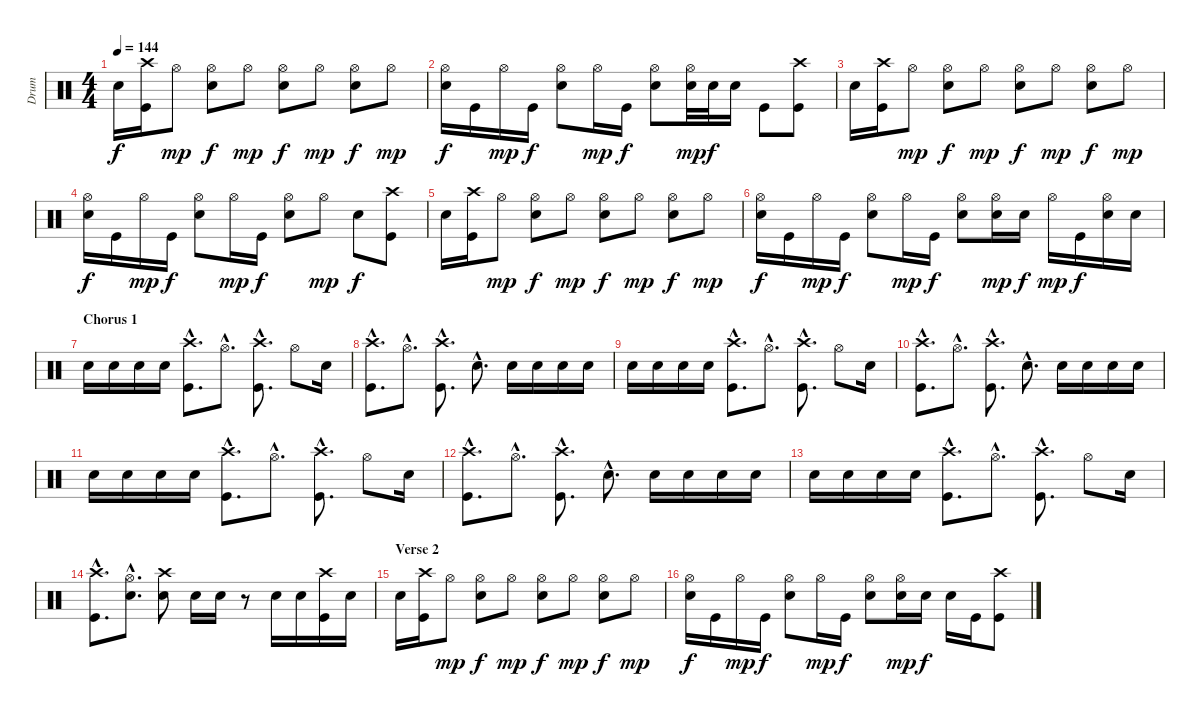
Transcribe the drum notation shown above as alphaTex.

\track ("Drum" "Drum") {instrument percussion}
\staff {score}
\articulation defaults
\ts (4 4)
\tempo 144
\clef neutral
\ks c "Snare (hit) 2".16{dy f}
("Crash high (hit)" "Kick (hit)").16 "Hi-Hat (open)".8{dy mp} ("Hi-Hat (open)" "Snare (hit) 2").8{dy f} "Hi-Hat (open)".8{dy mp} ("Hi-Hat (open)" "Snare (hit) 2").8{dy f} "Hi-Hat (open)".8{dy mp} ("Hi-Hat (open)" "Snare (hit) 2").8{dy f} "Hi-Hat (open)".8{dy mp} |
("Hi-Hat (open)" "Snare (hit) 2").16{dy f} "Kick (hit)".16 "Hi-Hat (open)".16{dy mp} "Kick (hit)".16{dy f} ("Hi-Hat (open)" "Snare (hit) 2").8 "Hi-Hat (open)".16{dy mp} "Kick (hit)".16{dy f} ("Hi-Hat (open)" "Snare (hit) 2").8 ("Hi-Hat (open)" "Snare (hit) 2").32{dy mp} "Snare (hit) 2".32{dy f} "Snare (hit) 2".16 "Kick (hit)".8 ("Crash high (hit)" "Kick (hit)").8 |
"Snare (hit) 2".16 ("Crash high (hit)" "Kick (hit)").16 "Hi-Hat (open)".8{dy mp} ("Hi-Hat (open)" "Snare (hit) 2").8{dy f} "Hi-Hat (open)".8{dy mp} ("Hi-Hat (open)" "Snare (hit) 2").8{dy f} "Hi-Hat (open)".8{dy mp} ("Hi-Hat (open)" "Snare (hit) 2").8{dy f} "Hi-Hat (open)".8{dy mp} |
("Hi-Hat (open)" "Snare (hit) 2").16{dy f} "Kick (hit)".16 "Hi-Hat (open)".16{dy mp} "Kick (hit)".16{dy f} ("Hi-Hat (open)" "Snare (hit) 2").8 "Hi-Hat (open)".16{dy mp} "Kick (hit)".16{dy f} ("Hi-Hat (open)" "Snare (hit) 2").8 "Hi-Hat (open)".8{dy mp} "Snare (hit) 2".8{dy f} ("Crash high (hit)" "Kick (hit)").8 |
"Snare (hit) 2".16 ("Crash high (hit)" "Kick (hit)").16 "Hi-Hat (open)".8{dy mp} ("Hi-Hat (open)" "Snare (hit) 2").8{dy f} "Hi-Hat (open)".8{dy mp} ("Hi-Hat (open)" "Snare (hit) 2").8{dy f} "Hi-Hat (open)".8{dy mp} ("Hi-Hat (open)" "Snare (hit) 2").8{dy f} "Hi-Hat (open)".8{dy mp} |
("Hi-Hat (open)" "Snare (hit) 2").16{dy f} "Kick (hit)".16 "Hi-Hat (open)".16{dy mp} "Kick (hit)".16{dy f} ("Hi-Hat (open)" "Snare (hit) 2").8 "Hi-Hat (open)".16{dy mp} "Kick (hit)".16{dy f} ("Hi-Hat (open)" "Snare (hit) 2").8 ("Hi-Hat (open)" "Snare (hit) 2").16{dy mp} "Snare (hit) 2".16{dy f} "Hi-Hat (open)".16{dy mp} "Kick (hit)".16{dy f} ("Hi-Hat (open)" "Snare (hit) 2").16 "Snare (hit) 2".16 |
\section ("" "Chorus 1")
"Snare (hit) 2".16 "Snare (hit) 2".16 "Snare (hit) 2".16 "Snare (hit) 2".16 ("Crash high (hit)"{hac} "Kick (hit)"{hac}).8{d} "Hi-Hat (open)"{hac}.8{d} ("Crash high (hit)"{hac} "Kick (hit)"{hac}).8{d} "Hi-Hat (open)".8 "Snare (hit) 2".16 |
("Crash high (hit)"{hac} "Kick (hit)"{hac}).8{d} "Hi-Hat (open)"{hac}.8{d} ("Crash high (hit)"{hac} "Kick (hit)"{hac}).8{d} "Snare (hit) 2"{hac}.8{d} "Snare (hit) 2".16 "Snare (hit) 2".16 "Snare (hit) 2".16 "Snare (hit) 2".16 |
"Snare (hit) 2".16 "Snare (hit) 2".16 "Snare (hit) 2".16 "Snare (hit) 2".16 ("Crash high (hit)"{hac} "Kick (hit)"{hac}).8{d} "Hi-Hat (open)"{hac}.8{d} ("Crash high (hit)"{hac} "Kick (hit)"{hac}).8{d} "Hi-Hat (open)".8 "Snare (hit) 2".16 |
("Crash high (hit)"{hac} "Kick (hit)"{hac}).8{d} "Hi-Hat (open)"{hac}.8{d} ("Crash high (hit)"{hac} "Kick (hit)"{hac}).8{d} "Snare (hit) 2"{hac}.8{d} "Snare (hit) 2".16 "Snare (hit) 2".16 "Snare (hit) 2".16 "Snare (hit) 2".16 |
"Snare (hit) 2".16 "Snare (hit) 2".16 "Snare (hit) 2".16 "Snare (hit) 2".16 ("Crash high (hit)"{hac} "Kick (hit)"{hac}).8{d} "Hi-Hat (open)"{hac}.8{d} ("Crash high (hit)"{hac} "Kick (hit)"{hac}).8{d} "Hi-Hat (open)".8 "Snare (hit) 2".16 |
("Crash high (hit)"{hac} "Kick (hit)"{hac}).8{d} "Hi-Hat (open)"{hac}.8{d} ("Crash high (hit)"{hac} "Kick (hit)"{hac}).8{d} "Snare (hit) 2"{hac}.8{d} "Snare (hit) 2".16 "Snare (hit) 2".16 "Snare (hit) 2".16 "Snare (hit) 2".16 |
"Snare (hit) 2".16 "Snare (hit) 2".16 "Snare (hit) 2".16 "Snare (hit) 2".16 ("Crash high (hit)"{hac} "Kick (hit)"{hac}).8{d} "Hi-Hat (open)"{hac}.8{d} ("Crash high (hit)"{hac} "Kick (hit)"{hac}).8{d} "Hi-Hat (open)".8 "Snare (hit) 2".16 |
("Crash high (hit)"{hac} "Kick (hit)"{hac}).8{d} ("Hi-Hat (open)"{hac} "Snare (hit) 2"{hac}).8{d} ("Crash high (hit)" "Snare (hit) 2").8 "Snare (hit) 2".16 "Snare (hit) 2".16 r.8 "Snare (hit) 2".16 "Snare (hit) 2".16 ("Crash high (hit)" "Kick (hit)").16 "Snare (hit) 2".16 |
\section ("" "Verse 2")
"Snare (hit) 2".16 ("Crash high (hit)" "Kick (hit)").16 "Hi-Hat (open)".8{dy mp} ("Hi-Hat (open)" "Snare (hit) 2").8{dy f} "Hi-Hat (open)".8{dy mp} ("Hi-Hat (open)" "Snare (hit) 2").8{dy f} "Hi-Hat (open)".8{dy mp} ("Hi-Hat (open)" "Snare (hit) 2").8{dy f} "Hi-Hat (open)".8{dy mp} |
("Hi-Hat (open)" "Snare (hit) 2").16{dy f} "Kick (hit)".16 "Hi-Hat (open)".16{dy mp} "Kick (hit)".16{dy f} ("Hi-Hat (open)" "Snare (hit) 2").8 "Hi-Hat (open)".16{dy mp} "Kick (hit)".16{dy f} ("Hi-Hat (open)" "Snare (hit) 2").8 ("Hi-Hat (open)" "Snare (hit) 2").16{dy mp} "Snare (hit) 2".16{dy f} "Snare (hit) 2".16 "Kick (hit)".16 ("Crash high (hit)" "Kick (hit)").8
